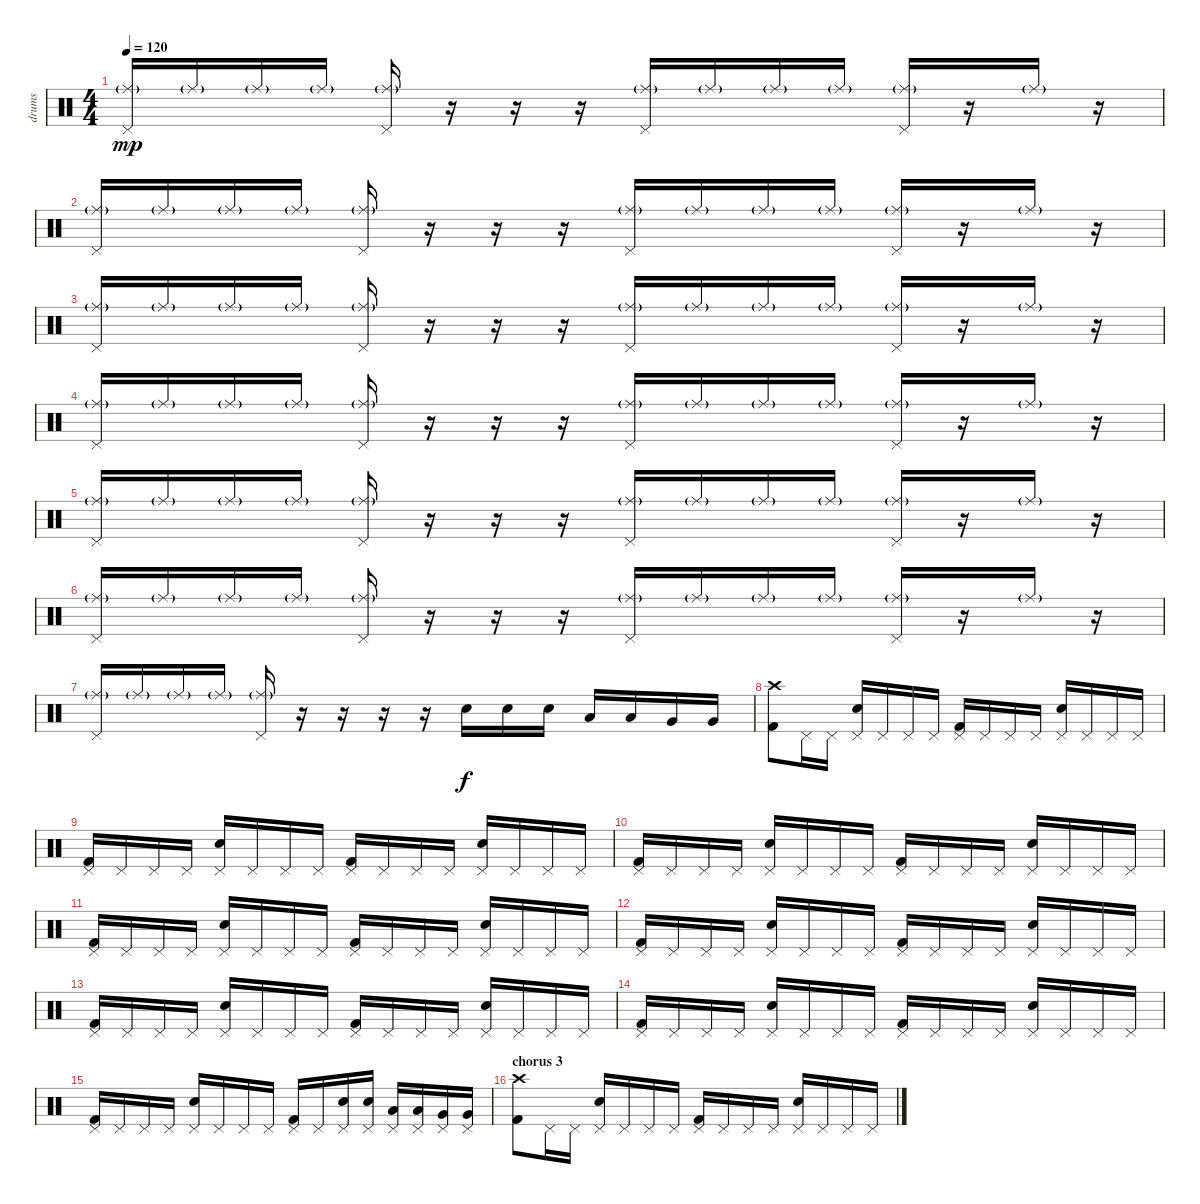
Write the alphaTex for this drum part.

\track ("drums" "drums") {instrument percussion}
\staff {score}
\articulation defaults
\ts (4 4)
\tempo 120
\clef neutral
\ks c
("Pedal Hi-Hat (hit)" "Ride (middle)"{g}).16{dy mp} "Ride (middle)"{g}.16 "Ride (middle)"{g}.16 "Ride (middle)"{g}.16 ("Pedal Hi-Hat (hit)" "Ride (middle)"{g}).16 r.16 r.16 r.16 ("Pedal Hi-Hat (hit)" "Ride (middle)"{g}).16 "Ride (middle)"{g}.16 "Ride (middle)"{g}.16 "Ride (middle)"{g}.16 ("Pedal Hi-Hat (hit)" "Ride (middle)"{g}).16 r.16 "Ride (middle)"{g}.16 r.16 |
("Pedal Hi-Hat (hit)" "Ride (middle)"{g}).16 "Ride (middle)"{g}.16 "Ride (middle)"{g}.16 "Ride (middle)"{g}.16 ("Pedal Hi-Hat (hit)" "Ride (middle)"{g}).16 r.16 r.16 r.16 ("Pedal Hi-Hat (hit)" "Ride (middle)"{g}).16 "Ride (middle)"{g}.16 "Ride (middle)"{g}.16 "Ride (middle)"{g}.16 ("Pedal Hi-Hat (hit)" "Ride (middle)"{g}).16 r.16 "Ride (middle)"{g}.16 r.16 |
("Pedal Hi-Hat (hit)" "Ride (middle)"{g}).16 "Ride (middle)"{g}.16 "Ride (middle)"{g}.16 "Ride (middle)"{g}.16 ("Pedal Hi-Hat (hit)" "Ride (middle)"{g}).16 r.16 r.16 r.16 ("Pedal Hi-Hat (hit)" "Ride (middle)"{g}).16 "Ride (middle)"{g}.16 "Ride (middle)"{g}.16 "Ride (middle)"{g}.16 ("Pedal Hi-Hat (hit)" "Ride (middle)"{g}).16 r.16 "Ride (middle)"{g}.16 r.16 |
("Pedal Hi-Hat (hit)" "Ride (middle)"{g}).16 "Ride (middle)"{g}.16 "Ride (middle)"{g}.16 "Ride (middle)"{g}.16 ("Pedal Hi-Hat (hit)" "Ride (middle)"{g}).16 r.16 r.16 r.16 ("Pedal Hi-Hat (hit)" "Ride (middle)"{g}).16 "Ride (middle)"{g}.16 "Ride (middle)"{g}.16 "Ride (middle)"{g}.16 ("Pedal Hi-Hat (hit)" "Ride (middle)"{g}).16 r.16 "Ride (middle)"{g}.16 r.16 |
("Pedal Hi-Hat (hit)" "Ride (middle)"{g}).16 "Ride (middle)"{g}.16 "Ride (middle)"{g}.16 "Ride (middle)"{g}.16 ("Pedal Hi-Hat (hit)" "Ride (middle)"{g}).16 r.16 r.16 r.16 ("Pedal Hi-Hat (hit)" "Ride (middle)"{g}).16 "Ride (middle)"{g}.16 "Ride (middle)"{g}.16 "Ride (middle)"{g}.16 ("Pedal Hi-Hat (hit)" "Ride (middle)"{g}).16 r.16 "Ride (middle)"{g}.16 r.16 |
("Pedal Hi-Hat (hit)" "Ride (middle)"{g}).16 "Ride (middle)"{g}.16 "Ride (middle)"{g}.16 "Ride (middle)"{g}.16 ("Pedal Hi-Hat (hit)" "Ride (middle)"{g}).16 r.16 r.16 r.16 ("Pedal Hi-Hat (hit)" "Ride (middle)"{g}).16 "Ride (middle)"{g}.16 "Ride (middle)"{g}.16 "Ride (middle)"{g}.16 ("Pedal Hi-Hat (hit)" "Ride (middle)"{g}).16 r.16 "Ride (middle)"{g}.16 r.16 |
("Pedal Hi-Hat (hit)" "Ride (middle)"{g}).16 "Ride (middle)"{g}.16 "Ride (middle)"{g}.16 "Ride (middle)"{g}.16 ("Pedal Hi-Hat (hit)" "Ride (middle)"{g}).16 r.16 r.16 r.16 r.16 "Electric Snare (hit)".16{dy f volume 14} "Electric Snare (hit)".16 "Electric Snare (hit)".16 "Low Tom (hit)".16 "Low Tom (hit)".16 "Very Low Tom (hit)".16 "Very Low Tom (hit)".16 |
("Kick (hit) 2" "Crash high (hit)").8 "Pedal Hi-Hat (hit)".16 "Pedal Hi-Hat (hit)".16 ("Electric Snare (hit)" "Pedal Hi-Hat (hit)").16 "Pedal Hi-Hat (hit)".16 "Pedal Hi-Hat (hit)".16 "Pedal Hi-Hat (hit)".16 ("Kick (hit) 2" "Pedal Hi-Hat (hit)").16 "Pedal Hi-Hat (hit)".16 "Pedal Hi-Hat (hit)".16 "Pedal Hi-Hat (hit)".16 ("Electric Snare (hit)" "Pedal Hi-Hat (hit)").16 "Pedal Hi-Hat (hit)".16 "Pedal Hi-Hat (hit)".16 "Pedal Hi-Hat (hit)".16 |
("Kick (hit) 2" "Pedal Hi-Hat (hit)").16 "Pedal Hi-Hat (hit)".16 "Pedal Hi-Hat (hit)".16 "Pedal Hi-Hat (hit)".16 ("Electric Snare (hit)" "Pedal Hi-Hat (hit)").16 "Pedal Hi-Hat (hit)".16 "Pedal Hi-Hat (hit)".16 "Pedal Hi-Hat (hit)".16 ("Kick (hit) 2" "Pedal Hi-Hat (hit)").16 "Pedal Hi-Hat (hit)".16 "Pedal Hi-Hat (hit)".16 "Pedal Hi-Hat (hit)".16 ("Electric Snare (hit)" "Pedal Hi-Hat (hit)").16 "Pedal Hi-Hat (hit)".16 "Pedal Hi-Hat (hit)".16 "Pedal Hi-Hat (hit)".16 |
("Kick (hit) 2" "Pedal Hi-Hat (hit)").16 "Pedal Hi-Hat (hit)".16 "Pedal Hi-Hat (hit)".16 "Pedal Hi-Hat (hit)".16 ("Electric Snare (hit)" "Pedal Hi-Hat (hit)").16 "Pedal Hi-Hat (hit)".16 "Pedal Hi-Hat (hit)".16 "Pedal Hi-Hat (hit)".16 ("Kick (hit) 2" "Pedal Hi-Hat (hit)").16 "Pedal Hi-Hat (hit)".16 "Pedal Hi-Hat (hit)".16 "Pedal Hi-Hat (hit)".16 ("Electric Snare (hit)" "Pedal Hi-Hat (hit)").16 "Pedal Hi-Hat (hit)".16 "Pedal Hi-Hat (hit)".16 "Pedal Hi-Hat (hit)".16 |
("Kick (hit) 2" "Pedal Hi-Hat (hit)").16 "Pedal Hi-Hat (hit)".16 "Pedal Hi-Hat (hit)".16 "Pedal Hi-Hat (hit)".16 ("Electric Snare (hit)" "Pedal Hi-Hat (hit)").16 "Pedal Hi-Hat (hit)".16 "Pedal Hi-Hat (hit)".16 "Pedal Hi-Hat (hit)".16 ("Kick (hit) 2" "Pedal Hi-Hat (hit)").16 "Pedal Hi-Hat (hit)".16 "Pedal Hi-Hat (hit)".16 "Pedal Hi-Hat (hit)".16 ("Electric Snare (hit)" "Pedal Hi-Hat (hit)").16 "Pedal Hi-Hat (hit)".16 "Pedal Hi-Hat (hit)".16 "Pedal Hi-Hat (hit)".16 |
("Kick (hit) 2" "Pedal Hi-Hat (hit)").16 "Pedal Hi-Hat (hit)".16 "Pedal Hi-Hat (hit)".16 "Pedal Hi-Hat (hit)".16 ("Electric Snare (hit)" "Pedal Hi-Hat (hit)").16 "Pedal Hi-Hat (hit)".16 "Pedal Hi-Hat (hit)".16 "Pedal Hi-Hat (hit)".16 ("Kick (hit) 2" "Pedal Hi-Hat (hit)").16 "Pedal Hi-Hat (hit)".16 "Pedal Hi-Hat (hit)".16 "Pedal Hi-Hat (hit)".16 ("Electric Snare (hit)" "Pedal Hi-Hat (hit)").16 "Pedal Hi-Hat (hit)".16 "Pedal Hi-Hat (hit)".16 "Pedal Hi-Hat (hit)".16 |
("Kick (hit) 2" "Pedal Hi-Hat (hit)").16 "Pedal Hi-Hat (hit)".16 "Pedal Hi-Hat (hit)".16 "Pedal Hi-Hat (hit)".16 ("Electric Snare (hit)" "Pedal Hi-Hat (hit)").16 "Pedal Hi-Hat (hit)".16 "Pedal Hi-Hat (hit)".16 "Pedal Hi-Hat (hit)".16 ("Kick (hit) 2" "Pedal Hi-Hat (hit)").16 "Pedal Hi-Hat (hit)".16 "Pedal Hi-Hat (hit)".16 "Pedal Hi-Hat (hit)".16 ("Electric Snare (hit)" "Pedal Hi-Hat (hit)").16 "Pedal Hi-Hat (hit)".16 "Pedal Hi-Hat (hit)".16 "Pedal Hi-Hat (hit)".16 |
("Kick (hit) 2" "Pedal Hi-Hat (hit)").16 "Pedal Hi-Hat (hit)".16 "Pedal Hi-Hat (hit)".16 "Pedal Hi-Hat (hit)".16 ("Electric Snare (hit)" "Pedal Hi-Hat (hit)").16 "Pedal Hi-Hat (hit)".16 "Pedal Hi-Hat (hit)".16 "Pedal Hi-Hat (hit)".16 ("Kick (hit) 2" "Pedal Hi-Hat (hit)").16 "Pedal Hi-Hat (hit)".16 "Pedal Hi-Hat (hit)".16 "Pedal Hi-Hat (hit)".16 ("Electric Snare (hit)" "Pedal Hi-Hat (hit)").16 "Pedal Hi-Hat (hit)".16 "Pedal Hi-Hat (hit)".16 "Pedal Hi-Hat (hit)".16 |
("Kick (hit) 2" "Pedal Hi-Hat (hit)").16 "Pedal Hi-Hat (hit)".16 "Pedal Hi-Hat (hit)".16 "Pedal Hi-Hat (hit)".16 ("Electric Snare (hit)" "Pedal Hi-Hat (hit)").16 "Pedal Hi-Hat (hit)".16 "Pedal Hi-Hat (hit)".16 "Pedal Hi-Hat (hit)".16 ("Kick (hit) 2" "Pedal Hi-Hat (hit)").16 "Pedal Hi-Hat (hit)".16 ("Electric Snare (hit)" "Pedal Hi-Hat (hit)").16 ("Electric Snare (hit)" "Pedal Hi-Hat (hit)").16 ("Low Tom (hit)" "Pedal Hi-Hat (hit)").16 ("Low Tom (hit)" "Pedal Hi-Hat (hit)").16 ("Very Low Tom (hit)" "Pedal Hi-Hat (hit)").16 ("Very Low Tom (hit)" "Pedal Hi-Hat (hit)").16 |
\section ("" "chorus 3")
("Kick (hit) 2" "Crash high (hit)").8 "Pedal Hi-Hat (hit)".16 "Pedal Hi-Hat (hit)".16 ("Electric Snare (hit)" "Pedal Hi-Hat (hit)").16 "Pedal Hi-Hat (hit)".16 "Pedal Hi-Hat (hit)".16 "Pedal Hi-Hat (hit)".16 ("Kick (hit) 2" "Pedal Hi-Hat (hit)").16 "Pedal Hi-Hat (hit)".16 "Pedal Hi-Hat (hit)".16 "Pedal Hi-Hat (hit)".16 ("Electric Snare (hit)" "Pedal Hi-Hat (hit)").16 "Pedal Hi-Hat (hit)".16 "Pedal Hi-Hat (hit)".16 "Pedal Hi-Hat (hit)".16
